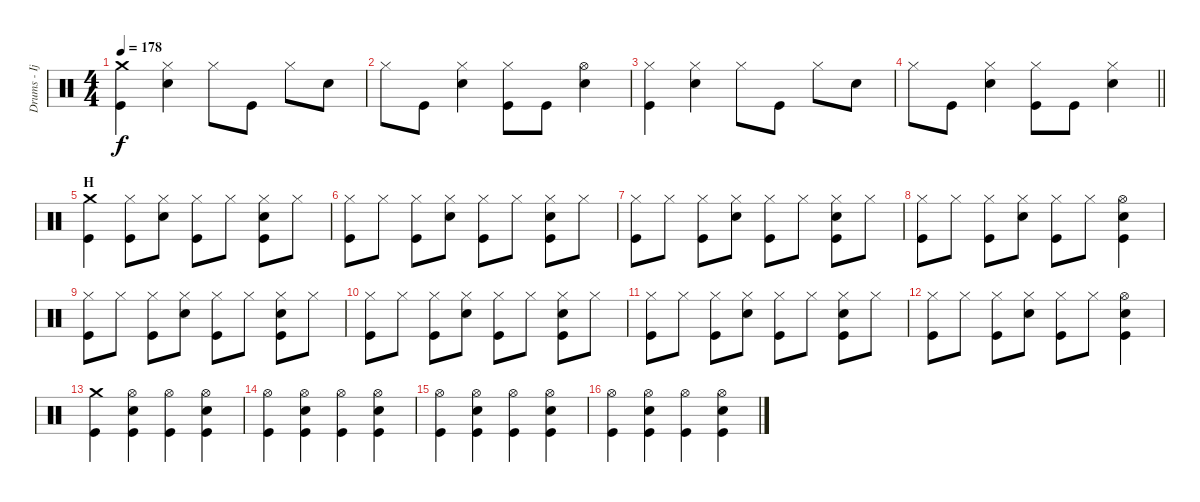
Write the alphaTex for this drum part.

\track ("Drums - Ijichi" "Drums - Ij") {instrument percussion}
\staff {score}
\articulation defaults
\ts (4 4)
\tempo 178
\clef neutral
\ks c
("Crash medium (hit)" "Kick (hit)").4{dy f} ("Hi-Hat (closed)" "Electric Snare (hit)").4 "Hi-Hat (closed)".8 "Kick (hit)".8 "Hi-Hat (closed)".8 "Electric Snare (hit)".8 |
"Hi-Hat (closed)".8 "Kick (hit)".8 ("Hi-Hat (closed)" "Electric Snare (hit)").4 ("Hi-Hat (closed)" "Kick (hit)").8 "Kick (hit)".8 ("Hi-Hat (open)" "Electric Snare (hit)").4 |
("Hi-Hat (closed)" "Kick (hit)").4 ("Hi-Hat (closed)" "Electric Snare (hit)").4 "Hi-Hat (closed)".8 "Kick (hit)".8 "Hi-Hat (closed)".8 "Electric Snare (hit)".8 |
\barLineRight lightlight "Hi-Hat (closed)".8 "Kick (hit)".8
("Hi-Hat (closed)" "Electric Snare (hit)").4 ("Hi-Hat (closed)" "Kick (hit)").8 "Kick (hit)".8 ("Hi-Hat (closed)" "Electric Snare (hit)").4 |
\section ("" "H")
("Crash medium (hit)" "Kick (hit)").4 ("Hi-Hat (closed)" "Kick (hit)").8 ("Hi-Hat (closed)" "Electric Snare (hit)").8 ("Hi-Hat (closed)" "Kick (hit)").8 "Hi-Hat (closed)".8 ("Hi-Hat (closed)" "Electric Snare (hit)" "Kick (hit)").8 "Hi-Hat (closed)".8 |
("Hi-Hat (closed)" "Kick (hit)").8 "Hi-Hat (closed)".8 ("Hi-Hat (closed)" "Kick (hit)").8 ("Hi-Hat (closed)" "Electric Snare (hit)").8 ("Hi-Hat (closed)" "Kick (hit)").8 "Hi-Hat (closed)".8 ("Hi-Hat (closed)" "Electric Snare (hit)" "Kick (hit)").8 "Hi-Hat (closed)".8 |
("Hi-Hat (closed)" "Kick (hit)").8 "Hi-Hat (closed)".8 ("Hi-Hat (closed)" "Kick (hit)").8 ("Hi-Hat (closed)" "Electric Snare (hit)").8 ("Hi-Hat (closed)" "Kick (hit)").8 "Hi-Hat (closed)".8 ("Hi-Hat (closed)" "Electric Snare (hit)" "Kick (hit)").8 "Hi-Hat (closed)".8 |
("Hi-Hat (closed)" "Kick (hit)").8 "Hi-Hat (closed)".8 ("Hi-Hat (closed)" "Kick (hit)").8 ("Hi-Hat (closed)" "Electric Snare (hit)").8 ("Hi-Hat (closed)" "Kick (hit)").8 "Hi-Hat (closed)".8 ("Hi-Hat (open)" "Electric Snare (hit)" "Kick (hit)").4 |
("Hi-Hat (closed)" "Kick (hit)").8 "Hi-Hat (closed)".8 ("Hi-Hat (closed)" "Kick (hit)").8 ("Hi-Hat (closed)" "Electric Snare (hit)").8 ("Hi-Hat (closed)" "Kick (hit)").8 "Hi-Hat (closed)".8 ("Hi-Hat (closed)" "Electric Snare (hit)" "Kick (hit)").8 "Hi-Hat (closed)".8 |
("Hi-Hat (closed)" "Kick (hit)").8 "Hi-Hat (closed)".8 ("Hi-Hat (closed)" "Kick (hit)").8 ("Hi-Hat (closed)" "Electric Snare (hit)").8 ("Hi-Hat (closed)" "Kick (hit)").8 "Hi-Hat (closed)".8 ("Hi-Hat (closed)" "Electric Snare (hit)" "Kick (hit)").8 "Hi-Hat (closed)".8 |
("Hi-Hat (closed)" "Kick (hit)").8 "Hi-Hat (closed)".8 ("Hi-Hat (closed)" "Kick (hit)").8 ("Hi-Hat (closed)" "Electric Snare (hit)").8 ("Hi-Hat (closed)" "Kick (hit)").8 "Hi-Hat (closed)".8 ("Hi-Hat (closed)" "Electric Snare (hit)" "Kick (hit)").8 "Hi-Hat (closed)".8 |
("Hi-Hat (closed)" "Kick (hit)").8 "Hi-Hat (closed)".8 ("Hi-Hat (closed)" "Kick (hit)").8 ("Hi-Hat (closed)" "Electric Snare (hit)").8 ("Hi-Hat (closed)" "Kick (hit)").8 "Hi-Hat (closed)".8 ("Hi-Hat (open)" "Electric Snare (hit)" "Kick (hit)").4 |
("Crash medium (hit)" "Kick (hit)").4 ("Hi-Hat (open)" "Electric Snare (hit)" "Kick (hit)").4 ("Hi-Hat (open)" "Kick (hit)").4 ("Hi-Hat (open)" "Electric Snare (hit)" "Kick (hit)").4 |
("Hi-Hat (open)" "Kick (hit)").4 ("Hi-Hat (open)" "Electric Snare (hit)" "Kick (hit)").4 ("Hi-Hat (open)" "Kick (hit)").4 ("Hi-Hat (open)" "Electric Snare (hit)" "Kick (hit)").4 |
("Hi-Hat (open)" "Kick (hit)").4 ("Hi-Hat (open)" "Electric Snare (hit)" "Kick (hit)").4 ("Hi-Hat (open)" "Kick (hit)").4 ("Hi-Hat (open)" "Electric Snare (hit)" "Kick (hit)").4 |
("Hi-Hat (open)" "Kick (hit)").4 ("Hi-Hat (open)" "Electric Snare (hit)" "Kick (hit)").4 ("Hi-Hat (open)" "Kick (hit)").4 ("Hi-Hat (open)" "Electric Snare (hit)" "Kick (hit)").4
